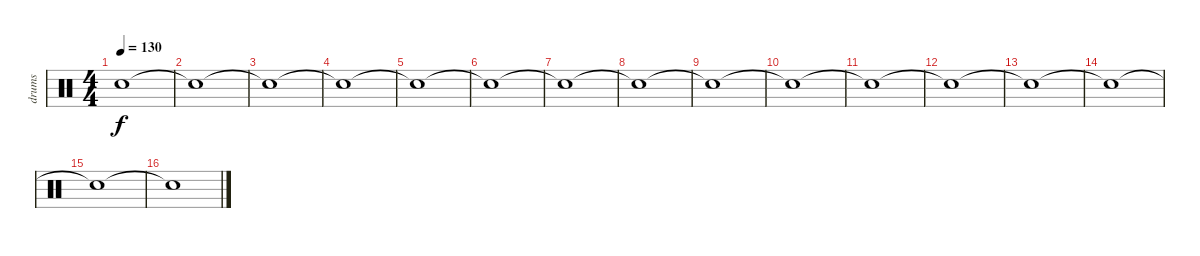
\track ("drums" "drums") {instrument percussion}
\staff {score}
\articulation defaults
\ts (4 4)
\tempo 130
\clef neutral
\ks c "Snare (hit)"{t}.1{dy f}
|
"Snare (hit)"{t}.1 |
"Snare (hit)"{t}.1 |
"Snare (hit)"{t}.1 |
"Snare (hit)"{t}.1 |
"Snare (hit)"{t}.1 |
"Snare (hit)"{t}.1 |
"Snare (hit)"{t}.1 |
"Snare (hit)"{t}.1 |
"Snare (hit)"{t}.1 |
"Snare (hit)"{t}.1 |
"Snare (hit)"{t}.1 |
"Snare (hit)"{t}.1 |
"Snare (hit)"{t}.1 |
"Snare (hit)"{t}.1 |
"Snare (hit)"{t}.1
